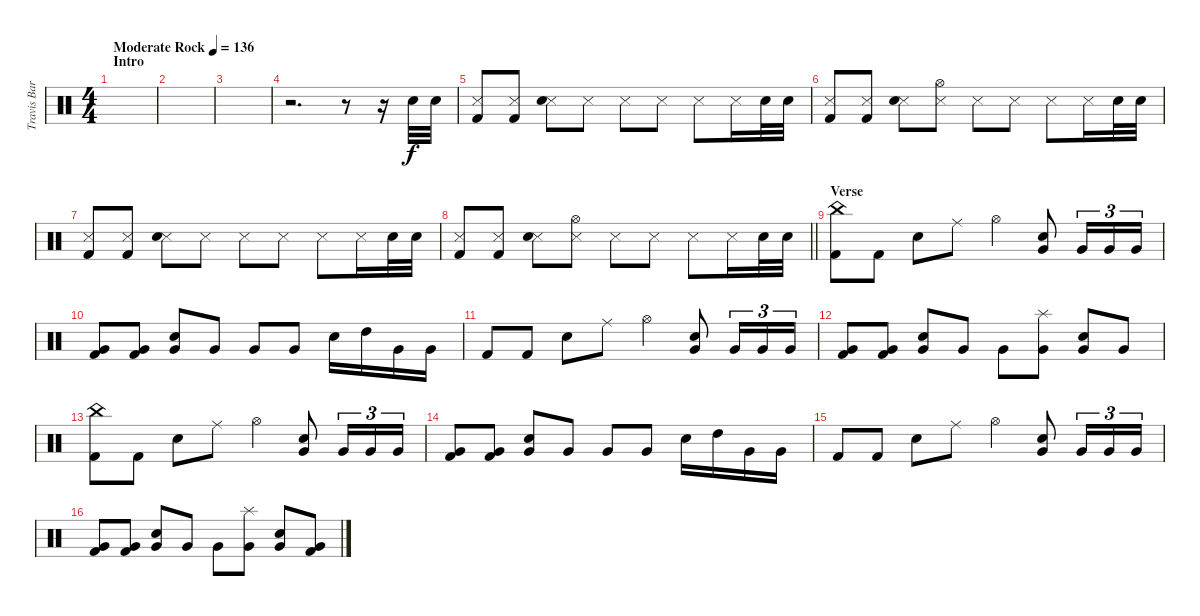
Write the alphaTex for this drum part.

\track ("Travis Barker - Drums" "Travis Bar") {instrument percussion}
\staff {score}
\articulation defaults
\ts (4 4)
\section ("" "Intro")
\tempo (136 "Moderate Rock")
\clef neutral
\ks c
|
|
|
r.2{d} r.8 r.16 "Snare (hit) 2".32 "Snare (hit) 2".32 |
("Kick (hit) 2" "Snare (side stick) 3").8 ("Snare (side stick) 3" "Kick (hit) 2").8 ("Snare (side stick) 3" "Snare (hit) 2").8 "Snare (side stick) 3".8 "Snare (side stick) 3".8 "Snare (side stick) 3".8 "Snare (side stick) 3".8 "Snare (side stick) 3".16 "Snare (hit) 2".32 "Snare (hit) 2".32 |
("Kick (hit) 2" "Snare (side stick) 3").8 ("Snare (side stick) 3" "Kick (hit) 2").8 ("Snare (side stick) 3" "Snare (hit) 2").8 ("Snare (side stick) 3" "Hi-Hat (open)").8 "Snare (side stick) 3".8 "Snare (side stick) 3".8 "Snare (side stick) 3".8 "Snare (side stick) 3".16 "Snare (hit) 2".32 "Snare (hit) 2".32 |
("Kick (hit) 2" "Snare (side stick) 3").8 ("Snare (side stick) 3" "Kick (hit) 2").8 ("Snare (side stick) 3" "Snare (hit) 2").8 "Snare (side stick) 3".8 "Snare (side stick) 3".8 "Snare (side stick) 3".8 "Snare (side stick) 3".8 "Snare (side stick) 3".16 "Snare (hit) 2".32 "Snare (hit) 2".32 |
\barLineRight lightlight
("Kick (hit) 2" "Snare (side stick) 3").8 ("Snare (side stick) 3" "Kick (hit) 2").8 ("Snare (side stick) 3" "Snare (hit) 2").8 ("Snare (side stick) 3" "Hi-Hat (open)").8 "Snare (side stick) 3".8 "Snare (side stick) 3".8 "Snare (side stick) 3".8 "Snare (side stick) 3".16 "Snare (hit) 2".32 "Snare (hit) 2".32 |
\section ("" "Verse")
("China (hit)" "Kick (hit) 2").8{dy f} "Kick (hit) 2".8 "Snare (hit) 2".8 "Ride (middle)".8 "Hi-Hat (open)".4 ("Snare (hit) 2" "Very Low Tom (hit)").8 "Very Low Tom (hit)".16{tu (3 2)} "Very Low Tom (hit)".16{tu (3 2)} "Very Low Tom (hit)".16{tu (3 2)} |
("Very Low Tom (hit)" "Kick (hit) 2").8 ("Very Low Tom (hit)" "Kick (hit) 2").8 ("Snare (hit) 2" "Very Low Tom (hit)").8 "Very Low Tom (hit)".8 "Very Low Tom (hit)".8 "Very Low Tom (hit)".8 "Snare (hit) 2".16 "High Tom (hit)".16 "Very Low Tom (hit)".16 "Very Low Tom (hit)".16 |
"Kick (hit) 2".8 "Kick (hit) 2".8 "Snare (hit) 2".8 "Ride (middle)".8 "Hi-Hat (open)".4 ("Snare (hit) 2" "Very Low Tom (hit)").8 "Very Low Tom (hit)".16{tu (3 2)} "Very Low Tom (hit)".16{tu (3 2)} "Very Low Tom (hit)".16{tu (3 2)} |
("Very Low Tom (hit)" "Kick (hit) 2").8 ("Very Low Tom (hit)" "Kick (hit) 2").8 ("Snare (hit) 2" "Very Low Tom (hit)").8 "Very Low Tom (hit)".8 "Very Low Tom (hit)".8 ("Splash (hit)" "Very Low Tom (hit)").8 ("Snare (hit) 2" "Very Low Tom (hit)").8 "Very Low Tom (hit)".8 |
("China (hit)" "Kick (hit) 2").8 "Kick (hit) 2".8 "Snare (hit) 2".8 "Ride (middle)".8 "Hi-Hat (open)".4 ("Snare (hit) 2" "Very Low Tom (hit)").8 "Very Low Tom (hit)".16{tu (3 2)} "Very Low Tom (hit)".16{tu (3 2)} "Very Low Tom (hit)".16{tu (3 2)} |
("Very Low Tom (hit)" "Kick (hit) 2").8 ("Very Low Tom (hit)" "Kick (hit) 2").8 ("Snare (hit) 2" "Very Low Tom (hit)").8 "Very Low Tom (hit)".8 "Very Low Tom (hit)".8 "Very Low Tom (hit)".8 "Snare (hit) 2".16 "High Tom (hit)".16 "Very Low Tom (hit)".16 "Very Low Tom (hit)".16 |
"Kick (hit) 2".8 "Kick (hit) 2".8 "Snare (hit) 2".8 "Ride (middle)".8 "Hi-Hat (open)".4 ("Snare (hit) 2" "Very Low Tom (hit)").8 "Very Low Tom (hit)".16{tu (3 2)} "Very Low Tom (hit)".16{tu (3 2)} "Very Low Tom (hit)".16{tu (3 2)} |
("Very Low Tom (hit)" "Kick (hit) 2").8 ("Very Low Tom (hit)" "Kick (hit) 2").8 ("Snare (hit) 2" "Very Low Tom (hit)").8 "Very Low Tom (hit)".8 "Very Low Tom (hit)".8 ("Splash (hit)" "Very Low Tom (hit)").8 ("Snare (hit) 2" "Very Low Tom (hit)").8 ("Very Low Tom (hit)" "Kick (hit) 2").8
